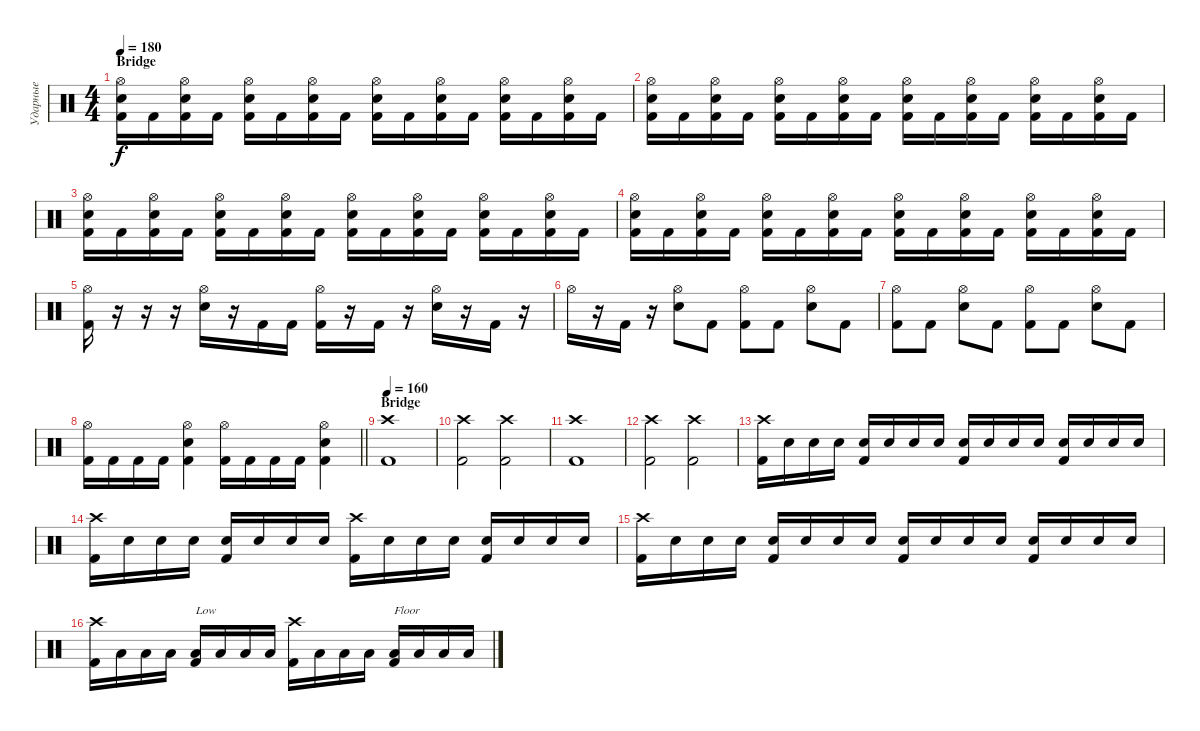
\track ("Ударные" "Ударные") {instrument percussion}
\staff {score}
\articulation defaults
\ts (4 4)
\section ("" "Bridge")
\tempo 180
\clef neutral
\ks c
("Hi-Hat (open)" "Electric Snare (hit)" "Kick (hit) 2").16{dy f} "Kick (hit) 2".16 ("Hi-Hat (open)" "Electric Snare (hit)" "Kick (hit) 2").16 "Kick (hit) 2".16 ("Hi-Hat (open)" "Electric Snare (hit)" "Kick (hit) 2").16 "Kick (hit) 2".16 ("Hi-Hat (open)" "Electric Snare (hit)" "Kick (hit) 2").16 "Kick (hit) 2".16 ("Hi-Hat (open)" "Electric Snare (hit)" "Kick (hit) 2").16 "Kick (hit) 2".16 ("Hi-Hat (open)" "Electric Snare (hit)" "Kick (hit) 2").16 "Kick (hit) 2".16 ("Hi-Hat (open)" "Electric Snare (hit)" "Kick (hit) 2").16 "Kick (hit) 2".16 ("Hi-Hat (open)" "Electric Snare (hit)" "Kick (hit) 2").16 "Kick (hit) 2".16 |
("Hi-Hat (open)" "Electric Snare (hit)" "Kick (hit) 2").16 "Kick (hit) 2".16 ("Hi-Hat (open)" "Electric Snare (hit)" "Kick (hit) 2").16 "Kick (hit) 2".16 ("Hi-Hat (open)" "Electric Snare (hit)" "Kick (hit) 2").16 "Kick (hit) 2".16 ("Hi-Hat (open)" "Electric Snare (hit)" "Kick (hit) 2").16 "Kick (hit) 2".16 ("Hi-Hat (open)" "Electric Snare (hit)" "Kick (hit) 2").16 "Kick (hit) 2".16 ("Hi-Hat (open)" "Electric Snare (hit)" "Kick (hit) 2").16 "Kick (hit) 2".16 ("Hi-Hat (open)" "Electric Snare (hit)" "Kick (hit) 2").16 "Kick (hit) 2".16 ("Hi-Hat (open)" "Electric Snare (hit)" "Kick (hit) 2").16 "Kick (hit) 2".16 |
("Hi-Hat (open)" "Electric Snare (hit)" "Kick (hit) 2").16 "Kick (hit) 2".16 ("Hi-Hat (open)" "Electric Snare (hit)" "Kick (hit) 2").16 "Kick (hit) 2".16 ("Hi-Hat (open)" "Electric Snare (hit)" "Kick (hit) 2").16 "Kick (hit) 2".16 ("Hi-Hat (open)" "Electric Snare (hit)" "Kick (hit) 2").16 "Kick (hit) 2".16 ("Hi-Hat (open)" "Electric Snare (hit)" "Kick (hit) 2").16 "Kick (hit) 2".16 ("Hi-Hat (open)" "Electric Snare (hit)" "Kick (hit) 2").16 "Kick (hit) 2".16 ("Hi-Hat (open)" "Electric Snare (hit)" "Kick (hit) 2").16 "Kick (hit) 2".16 ("Hi-Hat (open)" "Electric Snare (hit)" "Kick (hit) 2").16 "Kick (hit) 2".16 |
("Hi-Hat (open)" "Electric Snare (hit)" "Kick (hit) 2").16 "Kick (hit) 2".16 ("Hi-Hat (open)" "Electric Snare (hit)" "Kick (hit) 2").16 "Kick (hit) 2".16 ("Hi-Hat (open)" "Electric Snare (hit)" "Kick (hit) 2").16 "Kick (hit) 2".16 ("Hi-Hat (open)" "Electric Snare (hit)" "Kick (hit) 2").16 "Kick (hit) 2".16 ("Hi-Hat (open)" "Electric Snare (hit)" "Kick (hit) 2").16 "Kick (hit) 2".16 ("Hi-Hat (open)" "Electric Snare (hit)" "Kick (hit) 2").16 "Kick (hit) 2".16 ("Hi-Hat (open)" "Electric Snare (hit)" "Kick (hit) 2").16 "Kick (hit) 2".16 ("Hi-Hat (open)" "Electric Snare (hit)" "Kick (hit) 2").16 "Kick (hit) 2".16 |
("Hi-Hat (open)" "Kick (hit) 2").16 r.16 r.16 r.16 ("Hi-Hat (open)" "Electric Snare (hit)").16 r.16 "Kick (hit) 2".16 "Kick (hit) 2".16 ("Hi-Hat (open)" "Kick (hit) 2").16 r.16 "Kick (hit) 2".16 r.16 ("Hi-Hat (open)" "Electric Snare (hit)").16 r.16 "Kick (hit) 2".16 r.16 |
"Hi-Hat (open)".16 r.16 "Kick (hit) 2".16 r.16 ("Hi-Hat (open)" "Electric Snare (hit)").8 "Kick (hit) 2".8 ("Hi-Hat (open)" "Kick (hit) 2").8 "Kick (hit) 2".8 ("Hi-Hat (open)" "Electric Snare (hit)").8 "Kick (hit) 2".8 |
("Hi-Hat (open)" "Kick (hit) 2").8 "Kick (hit) 2".8 ("Hi-Hat (open)" "Electric Snare (hit)").8 "Kick (hit) 2".8 ("Hi-Hat (open)" "Kick (hit) 2").8 "Kick (hit) 2".8 ("Hi-Hat (open)" "Electric Snare (hit)").8 "Kick (hit) 2".8 |
\barLineRight lightlight
("Hi-Hat (open)" "Kick (hit) 2").16 "Kick (hit) 2".16 "Kick (hit) 2".16 "Kick (hit) 2".16 ("Hi-Hat (open)" "Electric Snare (hit)" "Kick (hit) 2").4 ("Hi-Hat (open)" "Kick (hit) 2").16 "Kick (hit) 2".16 "Kick (hit) 2".16 "Kick (hit) 2".16 ("Hi-Hat (open)" "Electric Snare (hit)" "Kick (hit) 2").4 |
\section ("" "Bridge")
\tempo 160
("Crash high (hit)" "Kick (hit) 2").1 |
("Crash high (hit)" "Kick (hit) 2").2 ("Crash high (hit)" "Kick (hit) 2").2 |
("Crash high (hit)" "Kick (hit) 2").1 |
("Crash high (hit)" "Kick (hit) 2").2 ("Crash high (hit)" "Kick (hit) 2").2 |
("Crash high (hit)" "Kick (hit) 2").16 "Electric Snare (hit)".16 "Electric Snare (hit)".16 "Electric Snare (hit)".16 ("Electric Snare (hit)" "Kick (hit) 2").16 "Electric Snare (hit)".16 "Electric Snare (hit)".16 "Electric Snare (hit)".16 ("Electric Snare (hit)" "Kick (hit) 2").16 "Electric Snare (hit)".16 "Electric Snare (hit)".16 "Electric Snare (hit)".16 ("Electric Snare (hit)" "Kick (hit) 2").16 "Electric Snare (hit)".16 "Electric Snare (hit)".16 "Electric Snare (hit)".16 |
("Crash high (hit)" "Kick (hit) 2").16 "Electric Snare (hit)".16 "Electric Snare (hit)".16 "Electric Snare (hit)".16 ("Electric Snare (hit)" "Kick (hit) 2").16 "Electric Snare (hit)".16 "Electric Snare (hit)".16 "Electric Snare (hit)".16 ("Crash high (hit)" "Kick (hit) 2").16 "Electric Snare (hit)".16 "Electric Snare (hit)".16 "Electric Snare (hit)".16 ("Electric Snare (hit)" "Kick (hit) 2").16 "Electric Snare (hit)".16 "Electric Snare (hit)".16 "Electric Snare (hit)".16 |
("Crash high (hit)" "Kick (hit) 2").16 "Electric Snare (hit)".16 "Electric Snare (hit)".16 "Electric Snare (hit)".16 ("Electric Snare (hit)" "Kick (hit) 2").16 "Electric Snare (hit)".16 "Electric Snare (hit)".16 "Electric Snare (hit)".16 ("Electric Snare (hit)" "Kick (hit) 2").16 "Electric Snare (hit)".16 "Electric Snare (hit)".16 "Electric Snare (hit)".16 ("Electric Snare (hit)" "Kick (hit) 2").16 "Electric Snare (hit)".16 "Electric Snare (hit)".16 "Electric Snare (hit)".16 |
("Crash high (hit)" "Kick (hit) 2").16 "Low Tom (hit)".16 "Low Tom (hit)".16 "Low Tom (hit)".16 ("Low Tom (hit)" "Kick (hit) 2").16{txt "Low"} "Low Tom (hit)".16 "Low Tom (hit)".16 "Low Tom (hit)".16 ("Crash high (hit)" "Kick (hit) 2").16 "Low Floor Tom (hit)".16 "Low Floor Tom (hit)".16 "Low Floor Tom (hit)".16 ("Low Floor Tom (hit)" "Kick (hit) 2").16{txt "Floor"} "Low Floor Tom (hit)".16 "Low Floor Tom (hit)".16 "Low Floor Tom (hit)".16
